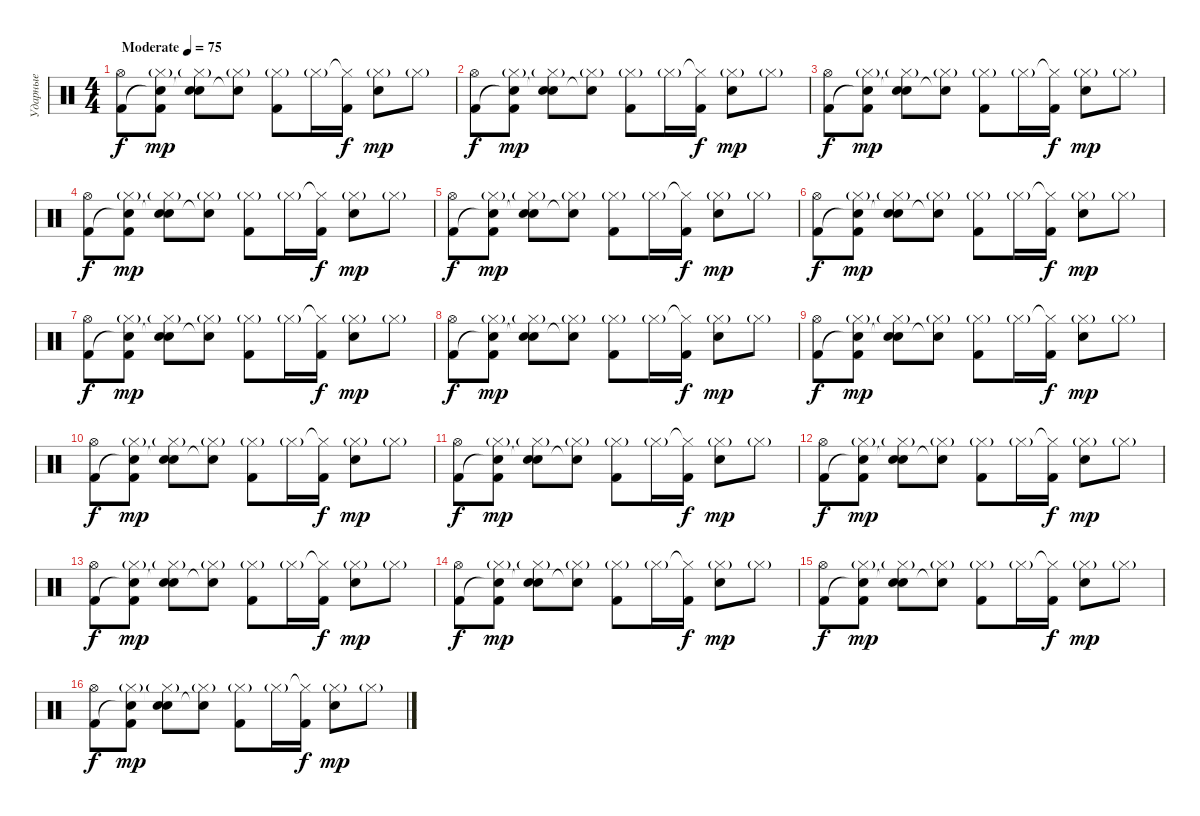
\track ("Ударные" "Ударные") {instrument percussion}
\staff {score}
\articulation defaults
\ts (4 4)
\tempo (75 "Moderate")
\clef neutral
\ks c
("Hi-Hat (open)" "Kick (hit) 2").8{dy f} ("Hi-Hat (closed)"{g} "Snare (hit)"{t} "Kick (hit) 2").8{dy mp} ("Hi-Hat (closed)"{g} "Snare (hit)"{t} "Electric Snare (hit)").8 ("Hi-Hat (closed)"{g} "Snare (hit)"{t}).8 ("Hi-Hat (closed)"{g} "Kick (hit) 2").8 "Hi-Hat (closed)"{g}.16 ("Hi-Hat (closed)"{t} "Kick (hit) 2").16{dy f} ("Hi-Hat (closed)"{g} "Electric Snare (hit)").8{dy mp} "Hi-Hat (closed)"{g}.8 |
("Hi-Hat (open)" "Kick (hit) 2").8{dy f} ("Hi-Hat (closed)"{g} "Snare (hit)"{t} "Kick (hit) 2").8{dy mp} ("Hi-Hat (closed)"{g} "Snare (hit)"{t} "Electric Snare (hit)").8 ("Hi-Hat (closed)"{g} "Snare (hit)"{t}).8 ("Hi-Hat (closed)"{g} "Kick (hit) 2").8 "Hi-Hat (closed)"{g}.16 ("Hi-Hat (closed)"{t} "Kick (hit) 2").16{dy f} ("Hi-Hat (closed)"{g} "Electric Snare (hit)").8{dy mp} "Hi-Hat (closed)"{g}.8 |
("Hi-Hat (open)" "Kick (hit) 2").8{dy f} ("Hi-Hat (closed)"{g} "Snare (hit)"{t} "Kick (hit) 2").8{dy mp} ("Hi-Hat (closed)"{g} "Snare (hit)"{t} "Electric Snare (hit)").8 ("Hi-Hat (closed)"{g} "Snare (hit)"{t}).8 ("Hi-Hat (closed)"{g} "Kick (hit) 2").8 "Hi-Hat (closed)"{g}.16 ("Hi-Hat (closed)"{t} "Kick (hit) 2").16{dy f} ("Hi-Hat (closed)"{g} "Electric Snare (hit)").8{dy mp} "Hi-Hat (closed)"{g}.8 |
("Hi-Hat (open)" "Kick (hit) 2").8{dy f} ("Hi-Hat (closed)"{g} "Snare (hit)"{t} "Kick (hit) 2").8{dy mp} ("Hi-Hat (closed)"{g} "Snare (hit)"{t} "Electric Snare (hit)").8 ("Hi-Hat (closed)"{g} "Snare (hit)"{t}).8 ("Hi-Hat (closed)"{g} "Kick (hit) 2").8 "Hi-Hat (closed)"{g}.16 ("Hi-Hat (closed)"{t} "Kick (hit) 2").16{dy f} ("Hi-Hat (closed)"{g} "Electric Snare (hit)").8{dy mp} "Hi-Hat (closed)"{g}.8 |
("Hi-Hat (open)" "Kick (hit) 2").8{dy f} ("Hi-Hat (closed)"{g} "Snare (hit)"{t} "Kick (hit) 2").8{dy mp} ("Hi-Hat (closed)"{g} "Snare (hit)"{t} "Electric Snare (hit)").8 ("Hi-Hat (closed)"{g} "Snare (hit)"{t}).8 ("Hi-Hat (closed)"{g} "Kick (hit) 2").8 "Hi-Hat (closed)"{g}.16 ("Hi-Hat (closed)"{t} "Kick (hit) 2").16{dy f} ("Hi-Hat (closed)"{g} "Electric Snare (hit)").8{dy mp} "Hi-Hat (closed)"{g}.8 |
("Hi-Hat (open)" "Kick (hit) 2").8{dy f} ("Hi-Hat (closed)"{g} "Snare (hit)"{t} "Kick (hit) 2").8{dy mp} ("Hi-Hat (closed)"{g} "Snare (hit)"{t} "Electric Snare (hit)").8 ("Hi-Hat (closed)"{g} "Snare (hit)"{t}).8 ("Hi-Hat (closed)"{g} "Kick (hit) 2").8 "Hi-Hat (closed)"{g}.16 ("Hi-Hat (closed)"{t} "Kick (hit) 2").16{dy f} ("Hi-Hat (closed)"{g} "Electric Snare (hit)").8{dy mp} "Hi-Hat (closed)"{g}.8 |
("Hi-Hat (open)" "Kick (hit) 2").8{dy f} ("Hi-Hat (closed)"{g} "Snare (hit)"{t} "Kick (hit) 2").8{dy mp} ("Hi-Hat (closed)"{g} "Snare (hit)"{t} "Electric Snare (hit)").8 ("Hi-Hat (closed)"{g} "Snare (hit)"{t}).8 ("Hi-Hat (closed)"{g} "Kick (hit) 2").8 "Hi-Hat (closed)"{g}.16 ("Hi-Hat (closed)"{t} "Kick (hit) 2").16{dy f} ("Hi-Hat (closed)"{g} "Electric Snare (hit)").8{dy mp} "Hi-Hat (closed)"{g}.8 |
("Hi-Hat (open)" "Kick (hit) 2").8{dy f} ("Hi-Hat (closed)"{g} "Snare (hit)"{t} "Kick (hit) 2").8{dy mp} ("Hi-Hat (closed)"{g} "Snare (hit)"{t} "Electric Snare (hit)").8 ("Hi-Hat (closed)"{g} "Snare (hit)"{t}).8 ("Hi-Hat (closed)"{g} "Kick (hit) 2").8 "Hi-Hat (closed)"{g}.16 ("Hi-Hat (closed)"{t} "Kick (hit) 2").16{dy f} ("Hi-Hat (closed)"{g} "Electric Snare (hit)").8{dy mp} "Hi-Hat (closed)"{g}.8 |
("Hi-Hat (open)" "Kick (hit) 2").8{dy f} ("Hi-Hat (closed)"{g} "Snare (hit)"{t} "Kick (hit) 2").8{dy mp} ("Hi-Hat (closed)"{g} "Snare (hit)"{t} "Electric Snare (hit)").8 ("Hi-Hat (closed)"{g} "Snare (hit)"{t}).8 ("Hi-Hat (closed)"{g} "Kick (hit) 2").8 "Hi-Hat (closed)"{g}.16 ("Hi-Hat (closed)"{t} "Kick (hit) 2").16{dy f} ("Hi-Hat (closed)"{g} "Electric Snare (hit)").8{dy mp} "Hi-Hat (closed)"{g}.8 |
("Hi-Hat (open)" "Kick (hit) 2").8{dy f} ("Hi-Hat (closed)"{g} "Snare (hit)"{t} "Kick (hit) 2").8{dy mp} ("Hi-Hat (closed)"{g} "Snare (hit)"{t} "Electric Snare (hit)").8 ("Hi-Hat (closed)"{g} "Snare (hit)"{t}).8 ("Hi-Hat (closed)"{g} "Kick (hit) 2").8 "Hi-Hat (closed)"{g}.16 ("Hi-Hat (closed)"{t} "Kick (hit) 2").16{dy f} ("Hi-Hat (closed)"{g} "Electric Snare (hit)").8{dy mp} "Hi-Hat (closed)"{g}.8 |
("Hi-Hat (open)" "Kick (hit) 2").8{dy f} ("Hi-Hat (closed)"{g} "Snare (hit)"{t} "Kick (hit) 2").8{dy mp} ("Hi-Hat (closed)"{g} "Snare (hit)"{t} "Electric Snare (hit)").8 ("Hi-Hat (closed)"{g} "Snare (hit)"{t}).8 ("Hi-Hat (closed)"{g} "Kick (hit) 2").8 "Hi-Hat (closed)"{g}.16 ("Hi-Hat (closed)"{t} "Kick (hit) 2").16{dy f} ("Hi-Hat (closed)"{g} "Electric Snare (hit)").8{dy mp} "Hi-Hat (closed)"{g}.8 |
("Hi-Hat (open)" "Kick (hit) 2").8{dy f} ("Hi-Hat (closed)"{g} "Snare (hit)"{t} "Kick (hit) 2").8{dy mp} ("Hi-Hat (closed)"{g} "Snare (hit)"{t} "Electric Snare (hit)").8 ("Hi-Hat (closed)"{g} "Snare (hit)"{t}).8 ("Hi-Hat (closed)"{g} "Kick (hit) 2").8 "Hi-Hat (closed)"{g}.16 ("Hi-Hat (closed)"{t} "Kick (hit) 2").16{dy f} ("Hi-Hat (closed)"{g} "Electric Snare (hit)").8{dy mp} "Hi-Hat (closed)"{g}.8 |
("Hi-Hat (open)" "Kick (hit) 2").8{dy f} ("Hi-Hat (closed)"{g} "Snare (hit)"{t} "Kick (hit) 2").8{dy mp} ("Hi-Hat (closed)"{g} "Snare (hit)"{t} "Electric Snare (hit)").8 ("Hi-Hat (closed)"{g} "Snare (hit)"{t}).8 ("Hi-Hat (closed)"{g} "Kick (hit) 2").8 "Hi-Hat (closed)"{g}.16 ("Hi-Hat (closed)"{t} "Kick (hit) 2").16{dy f} ("Hi-Hat (closed)"{g} "Electric Snare (hit)").8{dy mp} "Hi-Hat (closed)"{g}.8 |
("Hi-Hat (open)" "Kick (hit) 2").8{dy f} ("Hi-Hat (closed)"{g} "Snare (hit)"{t} "Kick (hit) 2").8{dy mp} ("Hi-Hat (closed)"{g} "Snare (hit)"{t} "Electric Snare (hit)").8 ("Hi-Hat (closed)"{g} "Snare (hit)"{t}).8 ("Hi-Hat (closed)"{g} "Kick (hit) 2").8 "Hi-Hat (closed)"{g}.16 ("Hi-Hat (closed)"{t} "Kick (hit) 2").16{dy f} ("Hi-Hat (closed)"{g} "Electric Snare (hit)").8{dy mp} "Hi-Hat (closed)"{g}.8 |
("Hi-Hat (open)" "Kick (hit) 2").8{dy f} ("Hi-Hat (closed)"{g} "Snare (hit)"{t} "Kick (hit) 2").8{dy mp} ("Hi-Hat (closed)"{g} "Snare (hit)"{t} "Electric Snare (hit)").8 ("Hi-Hat (closed)"{g} "Snare (hit)"{t}).8 ("Hi-Hat (closed)"{g} "Kick (hit) 2").8 "Hi-Hat (closed)"{g}.16 ("Hi-Hat (closed)"{t} "Kick (hit) 2").16{dy f} ("Hi-Hat (closed)"{g} "Electric Snare (hit)").8{dy mp} "Hi-Hat (closed)"{g}.8 |
("Hi-Hat (open)" "Kick (hit) 2").8{dy f} ("Hi-Hat (closed)"{g} "Snare (hit)"{t} "Kick (hit) 2").8{dy mp} ("Hi-Hat (closed)"{g} "Snare (hit)"{t} "Electric Snare (hit)").8 ("Hi-Hat (closed)"{g} "Snare (hit)"{t}).8 ("Hi-Hat (closed)"{g} "Kick (hit) 2").8 "Hi-Hat (closed)"{g}.16 ("Hi-Hat (closed)"{t} "Kick (hit) 2").16{dy f} ("Hi-Hat (closed)"{g} "Electric Snare (hit)").8{dy mp} "Hi-Hat (closed)"{g}.8
